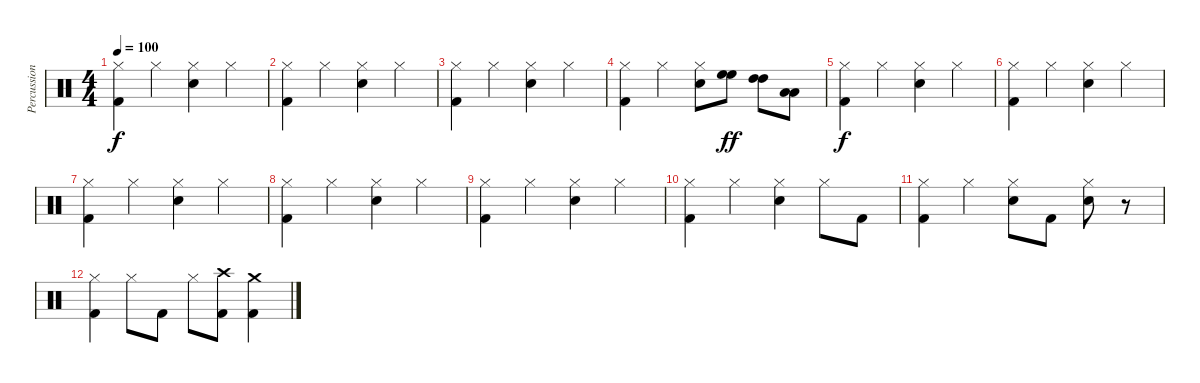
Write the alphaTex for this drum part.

\track ("Percussion" "Percussion") {instrument percussion}
\staff {score}
\articulation defaults
\ts (4 4)
\tempo 100
\clef neutral
\ks c
("Kick (hit) 2" "Hi-Hat (closed)").4{dy f} "Hi-Hat (closed)".4 ("Snare (hit) 2" "Hi-Hat (closed)").4 "Hi-Hat (closed)".4 |
("Kick (hit) 2" "Hi-Hat (closed)").4 "Hi-Hat (closed)".4 ("Snare (hit) 2" "Hi-Hat (closed)").4 "Hi-Hat (closed)".4 |
("Kick (hit) 2" "Hi-Hat (closed)").4 "Hi-Hat (closed)".4 ("Snare (hit) 2" "Hi-Hat (closed)").4 "Hi-Hat (closed)".4 |
("Kick (hit) 2" "Hi-Hat (closed)").4 "Hi-Hat (closed)".4 ("Snare (hit) 2" "Hi-Hat (closed)").8 ("High Floor Tom (hit)" "High Floor Tom (hit)").8{dy ff} ("High Tom (hit)" "High Tom (hit)").8 ("Low Tom (hit)" "Low Tom (hit)").8 |
("Kick (hit) 2" "Hi-Hat (closed)").4{dy f} "Hi-Hat (closed)".4 ("Snare (hit) 2" "Hi-Hat (closed)").4 "Hi-Hat (closed)".4 |
("Kick (hit) 2" "Hi-Hat (closed)").4 "Hi-Hat (closed)".4 ("Snare (hit) 2" "Hi-Hat (closed)").4 "Hi-Hat (closed)".4 |
("Kick (hit) 2" "Hi-Hat (closed)").4 "Hi-Hat (closed)".4 ("Snare (hit) 2" "Hi-Hat (closed)").4 "Hi-Hat (closed)".4 |
("Kick (hit) 2" "Hi-Hat (closed)").4 "Hi-Hat (closed)".4 ("Snare (hit) 2" "Hi-Hat (closed)").4 "Hi-Hat (closed)".4 |
("Kick (hit) 2" "Hi-Hat (closed)").4 "Hi-Hat (closed)".4 ("Snare (hit) 2" "Hi-Hat (closed)").4 "Hi-Hat (closed)".4 |
("Kick (hit) 2" "Hi-Hat (closed)").4 "Hi-Hat (closed)".4 ("Snare (hit) 2" "Hi-Hat (closed)").4 "Hi-Hat (closed)".8 "Kick (hit) 2".8 |
("Kick (hit) 2" "Hi-Hat (closed)").4 "Hi-Hat (closed)".4 ("Snare (hit) 2" "Hi-Hat (closed)").8 "Kick (hit) 2".8 ("Snare (hit) 2" "Hi-Hat (closed)").8 r.8 |
("Kick (hit) 2" "Hi-Hat (closed)").4 "Hi-Hat (closed)".8 "Kick (hit) 2".8 "Hi-Hat (closed)".8 ("Kick (hit) 2" "Crash high (hit)").8 ("Kick (hit) 2" "Crash medium (hit)").4
